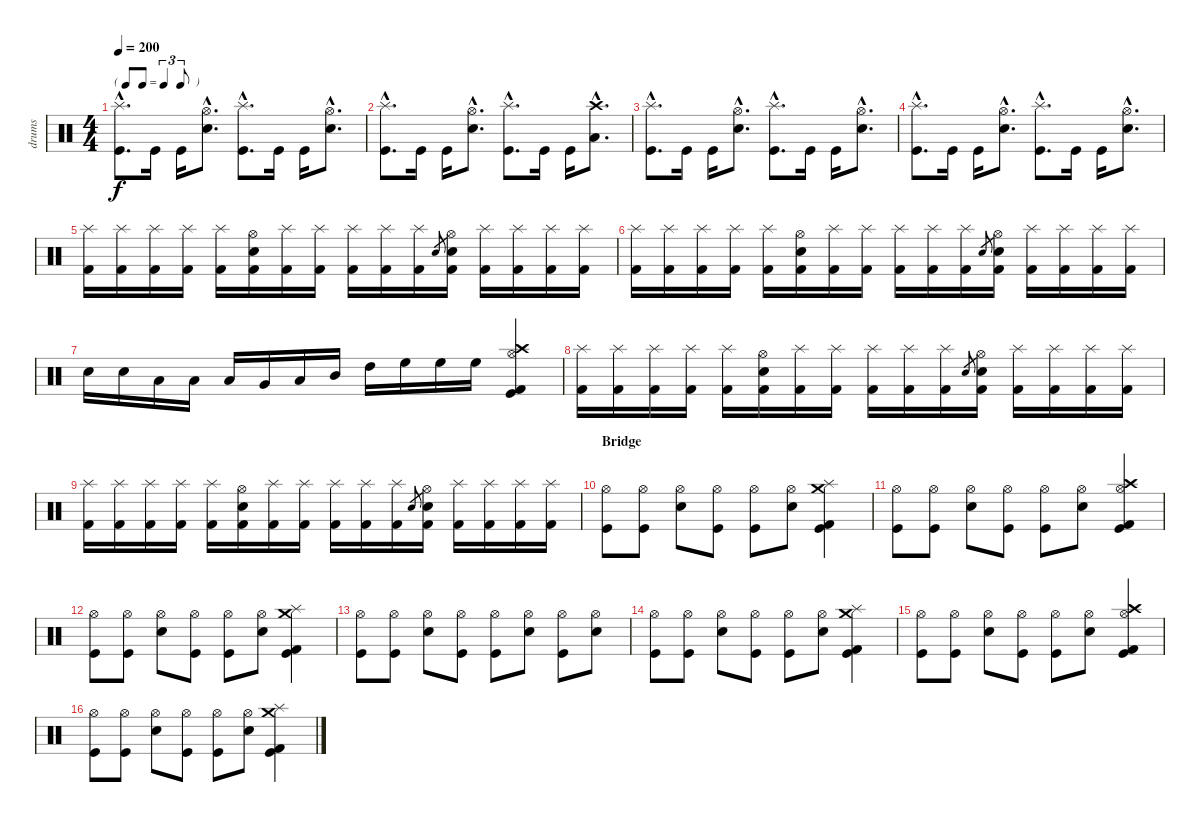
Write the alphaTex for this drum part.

\track ("drums" "drums") {instrument percussion}
\staff {score}
\articulation defaults
\ts (4 4)
\tf triplet8th
\tempo 200
\clef neutral
\ks c
("Splash (hit)"{hac} "Kick (hit)"{hac}).8{d dy f} "Kick (hit)".16 "Kick (hit)".16 ("Hi-Hat (open)"{hac} "Electric Snare (hit)"{hac}).8{d} ("Splash (hit)"{hac} "Kick (hit)"{hac}).8{d} "Kick (hit)".16 "Kick (hit)".16 ("Hi-Hat (open)"{hac} "Electric Snare (hit)"{hac}).8{d} |
("Splash (hit)"{hac} "Kick (hit)"{hac}).8{d} "Kick (hit)".16 "Kick (hit)".16 ("Hi-Hat (open)"{hac} "Electric Snare (hit)"{hac}).8{d} ("Splash (hit)"{hac} "Kick (hit)"{hac}).8{d} "Kick (hit)".16 "Kick (hit)".16 ("Crash high (hit)"{hac} "Low Floor Tom (hit)"{hac}).8{d} |
("Splash (hit)"{hac} "Kick (hit)"{hac}).8{d} "Kick (hit)".16 "Kick (hit)".16 ("Hi-Hat (open)"{hac} "Electric Snare (hit)"{hac}).8{d} ("Splash (hit)"{hac} "Kick (hit)"{hac}).8{d} "Kick (hit)".16 "Kick (hit)".16 ("Hi-Hat (open)"{hac} "Electric Snare (hit)"{hac}).8{d} |
("Splash (hit)"{hac} "Kick (hit)"{hac}).8{d} "Kick (hit)".16 "Kick (hit)".16 ("Hi-Hat (open)"{hac} "Electric Snare (hit)"{hac}).8{d} ("Splash (hit)"{hac} "Kick (hit)"{hac}).8{d} "Kick (hit)".16 "Kick (hit)".16 ("Hi-Hat (open)"{hac} "Electric Snare (hit)"{hac}).8{d} |
("Kick (hit) 2" "Splash (hit)").16 ("Kick (hit) 2" "Splash (hit)").16 ("Kick (hit) 2" "Splash (hit)").16 ("Kick (hit) 2" "Splash (hit)").16 ("Kick (hit) 2" "Splash (hit)").16 ("Kick (hit) 2" "Electric Snare (hit)" "Hi-Hat (open)").16 ("Kick (hit) 2" "Splash (hit)").16 ("Kick (hit) 2" "Splash (hit)").16 ("Kick (hit) 2" "Splash (hit)").16 ("Kick (hit) 2" "Splash (hit)").16 ("Kick (hit) 2" "Splash (hit)").16 "Electric Snare (hit)".8{gr} ("Kick (hit) 2" "Electric Snare (hit)" "Hi-Hat (open)").16 ("Kick (hit) 2" "Splash (hit)").16 ("Kick (hit) 2" "Splash (hit)").16 ("Kick (hit) 2" "Splash (hit)").16 ("Kick (hit) 2" "Splash (hit)").16 |
("Kick (hit) 2" "Splash (hit)").16 ("Kick (hit) 2" "Splash (hit)").16 ("Kick (hit) 2" "Splash (hit)").16 ("Kick (hit) 2" "Splash (hit)").16 ("Kick (hit) 2" "Splash (hit)").16 ("Kick (hit) 2" "Electric Snare (hit)" "Hi-Hat (open)").16 ("Kick (hit) 2" "Splash (hit)").16 ("Kick (hit) 2" "Splash (hit)").16 ("Kick (hit) 2" "Splash (hit)").16 ("Kick (hit) 2" "Splash (hit)").16 ("Kick (hit) 2" "Splash (hit)").16 "Electric Snare (hit)".8{gr} ("Kick (hit) 2" "Electric Snare (hit)" "Hi-Hat (open)").16 ("Kick (hit) 2" "Splash (hit)").16 ("Kick (hit) 2" "Splash (hit)").16 ("Kick (hit) 2" "Splash (hit)").16 ("Kick (hit) 2" "Splash (hit)").16 |
"Electric Snare (hit)".16 "Snare (hit) 2".16 "Low Floor Tom (hit)".16 "Low Floor Tom (hit)".16 "Low Floor Tom (hit)".16 "Very Low Tom (hit)".16 "Low Tom (hit)".16 "Mid Tom (hit)".16 "High Tom (hit)".16 "High Floor Tom (hit)".16 "High Floor Tom (hit)".16 "High Floor Tom (hit)".16 ("Crash high (hit)" "Hi-Hat (open)" "Kick (hit)" "Kick (hit) 2").4 |
("Kick (hit) 2" "Splash (hit)").16 ("Kick (hit) 2" "Splash (hit)").16 ("Kick (hit) 2" "Splash (hit)").16 ("Kick (hit) 2" "Splash (hit)").16 ("Kick (hit) 2" "Splash (hit)").16 ("Kick (hit) 2" "Electric Snare (hit)" "Hi-Hat (open)").16 ("Kick (hit) 2" "Splash (hit)").16 ("Kick (hit) 2" "Splash (hit)").16 ("Kick (hit) 2" "Splash (hit)").16 ("Kick (hit) 2" "Splash (hit)").16 ("Kick (hit) 2" "Splash (hit)").16 "Electric Snare (hit)".8{gr} ("Kick (hit) 2" "Electric Snare (hit)" "Hi-Hat (open)").16 ("Kick (hit) 2" "Splash (hit)").16 ("Kick (hit) 2" "Splash (hit)").16 ("Kick (hit) 2" "Splash (hit)").16 ("Kick (hit) 2" "Splash (hit)").16 |
("Kick (hit) 2" "Splash (hit)").16 ("Kick (hit) 2" "Splash (hit)").16 ("Kick (hit) 2" "Splash (hit)").16 ("Kick (hit) 2" "Splash (hit)").16 ("Kick (hit) 2" "Splash (hit)").16 ("Kick (hit) 2" "Electric Snare (hit)" "Hi-Hat (open)").16 ("Kick (hit) 2" "Splash (hit)").16 ("Kick (hit) 2" "Splash (hit)").16 ("Kick (hit) 2" "Splash (hit)").16 ("Kick (hit) 2" "Splash (hit)").16 ("Kick (hit) 2" "Splash (hit)").16 "Electric Snare (hit)".8{gr} ("Kick (hit) 2" "Electric Snare (hit)" "Hi-Hat (open)").16 ("Kick (hit) 2" "Splash (hit)").16 ("Kick (hit) 2" "Splash (hit)").16 ("Kick (hit) 2" "Splash (hit)").16 ("Kick (hit) 2" "Splash (hit)").16 |
\section ("" "Bridge")
("Hi-Hat (open)" "Kick (hit)").8 ("Hi-Hat (open)" "Kick (hit)").8 ("Hi-Hat (open)" "Snare (hit) 2").8 ("Hi-Hat (open)" "Kick (hit)").8 ("Hi-Hat (open)" "Kick (hit)").8 ("Hi-Hat (open)" "Snare (hit) 2").8 ("Crash medium (hit)" "Splash (hit)" "Kick (hit)" "Kick (hit) 2").4 |
("Hi-Hat (open)" "Kick (hit)").8 ("Hi-Hat (open)" "Kick (hit)").8 ("Hi-Hat (open)" "Snare (hit) 2").8 ("Hi-Hat (open)" "Kick (hit)").8 ("Hi-Hat (open)" "Kick (hit)").8 ("Hi-Hat (open)" "Snare (hit) 2").8 ("Crash high (hit)" "Hi-Hat (open)" "Kick (hit)" "Kick (hit) 2").4 |
("Hi-Hat (open)" "Kick (hit)").8 ("Hi-Hat (open)" "Kick (hit)").8 ("Hi-Hat (open)" "Snare (hit) 2").8 ("Hi-Hat (open)" "Kick (hit)").8 ("Hi-Hat (open)" "Kick (hit)").8 ("Hi-Hat (open)" "Snare (hit) 2").8 ("Crash medium (hit)" "Splash (hit)" "Kick (hit)" "Kick (hit) 2").4 |
("Hi-Hat (open)" "Kick (hit)").8 ("Hi-Hat (open)" "Kick (hit)").8 ("Hi-Hat (open)" "Snare (hit) 2").8 ("Hi-Hat (open)" "Kick (hit)").8 ("Hi-Hat (open)" "Kick (hit)").8 ("Hi-Hat (open)" "Snare (hit) 2").8 ("Hi-Hat (open)" "Kick (hit)").8 ("Hi-Hat (open)" "Snare (hit) 2").8 |
("Hi-Hat (open)" "Kick (hit)").8 ("Hi-Hat (open)" "Kick (hit)").8 ("Hi-Hat (open)" "Snare (hit) 2").8 ("Hi-Hat (open)" "Kick (hit)").8 ("Hi-Hat (open)" "Kick (hit)").8 ("Hi-Hat (open)" "Snare (hit) 2").8 ("Crash medium (hit)" "Splash (hit)" "Kick (hit)" "Kick (hit) 2").4 |
("Hi-Hat (open)" "Kick (hit)").8 ("Hi-Hat (open)" "Kick (hit)").8 ("Hi-Hat (open)" "Snare (hit) 2").8 ("Hi-Hat (open)" "Kick (hit)").8 ("Hi-Hat (open)" "Kick (hit)").8 ("Hi-Hat (open)" "Snare (hit) 2").8 ("Crash high (hit)" "Hi-Hat (open)" "Kick (hit)" "Kick (hit) 2").4 |
("Hi-Hat (open)" "Kick (hit)").8 ("Hi-Hat (open)" "Kick (hit)").8 ("Hi-Hat (open)" "Snare (hit) 2").8 ("Hi-Hat (open)" "Kick (hit)").8 ("Hi-Hat (open)" "Kick (hit)").8 ("Hi-Hat (open)" "Snare (hit) 2").8 ("Crash medium (hit)" "Splash (hit)" "Kick (hit)" "Kick (hit) 2").4
